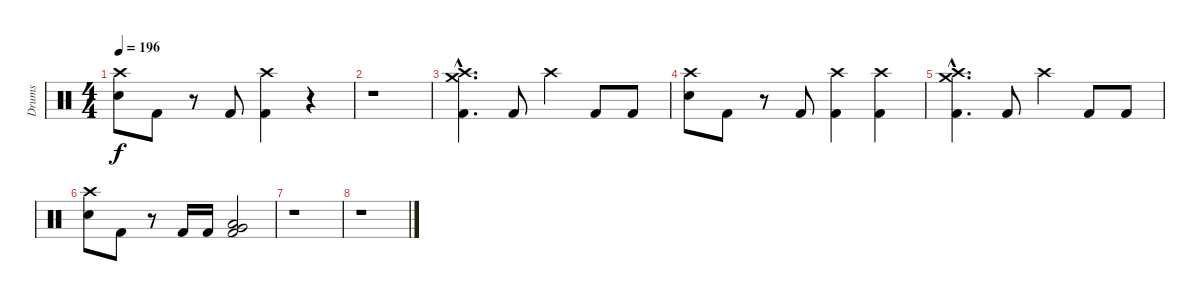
\track ("Drums" "Drums") {instrument percussion}
\staff {score}
\articulation defaults
\ts (4 4)
\tempo 196
\clef neutral
\ks c
("Crash high (hit)" "Electric Snare (hit)").8{dy f} "Kick (hit) 2".8 r.8 "Kick (hit) 2".8 ("Crash high (hit)" "Kick (hit) 2").4 r.4 |
r.1 |
("Crash high (hit)"{hac} "Crash medium (hit)"{hac} "Kick (hit) 2"{hac}).4{d} "Kick (hit) 2".8 "Crash high (hit)".4 "Kick (hit) 2".8 "Kick (hit) 2".8 |
("Crash high (hit)" "Electric Snare (hit)").8 "Kick (hit) 2".8 r.8 "Kick (hit) 2".8 ("Crash high (hit)" "Kick (hit) 2").4 ("Crash high (hit)" "Kick (hit) 2").4 |
("Crash high (hit)"{hac} "Crash medium (hit)"{hac} "Kick (hit) 2"{hac}).4{d} "Kick (hit) 2".8 "Crash high (hit)".4 "Kick (hit) 2".8 "Kick (hit) 2".8 |
("Crash high (hit)" "Electric Snare (hit)").8 "Kick (hit) 2".8 r.8 "Kick (hit) 2".16 "Kick (hit) 2".16 ("Very Low Tom (hit)" "Low Tom (hit)" "Kick (hit) 2").2 |
r.1 |
r.1
